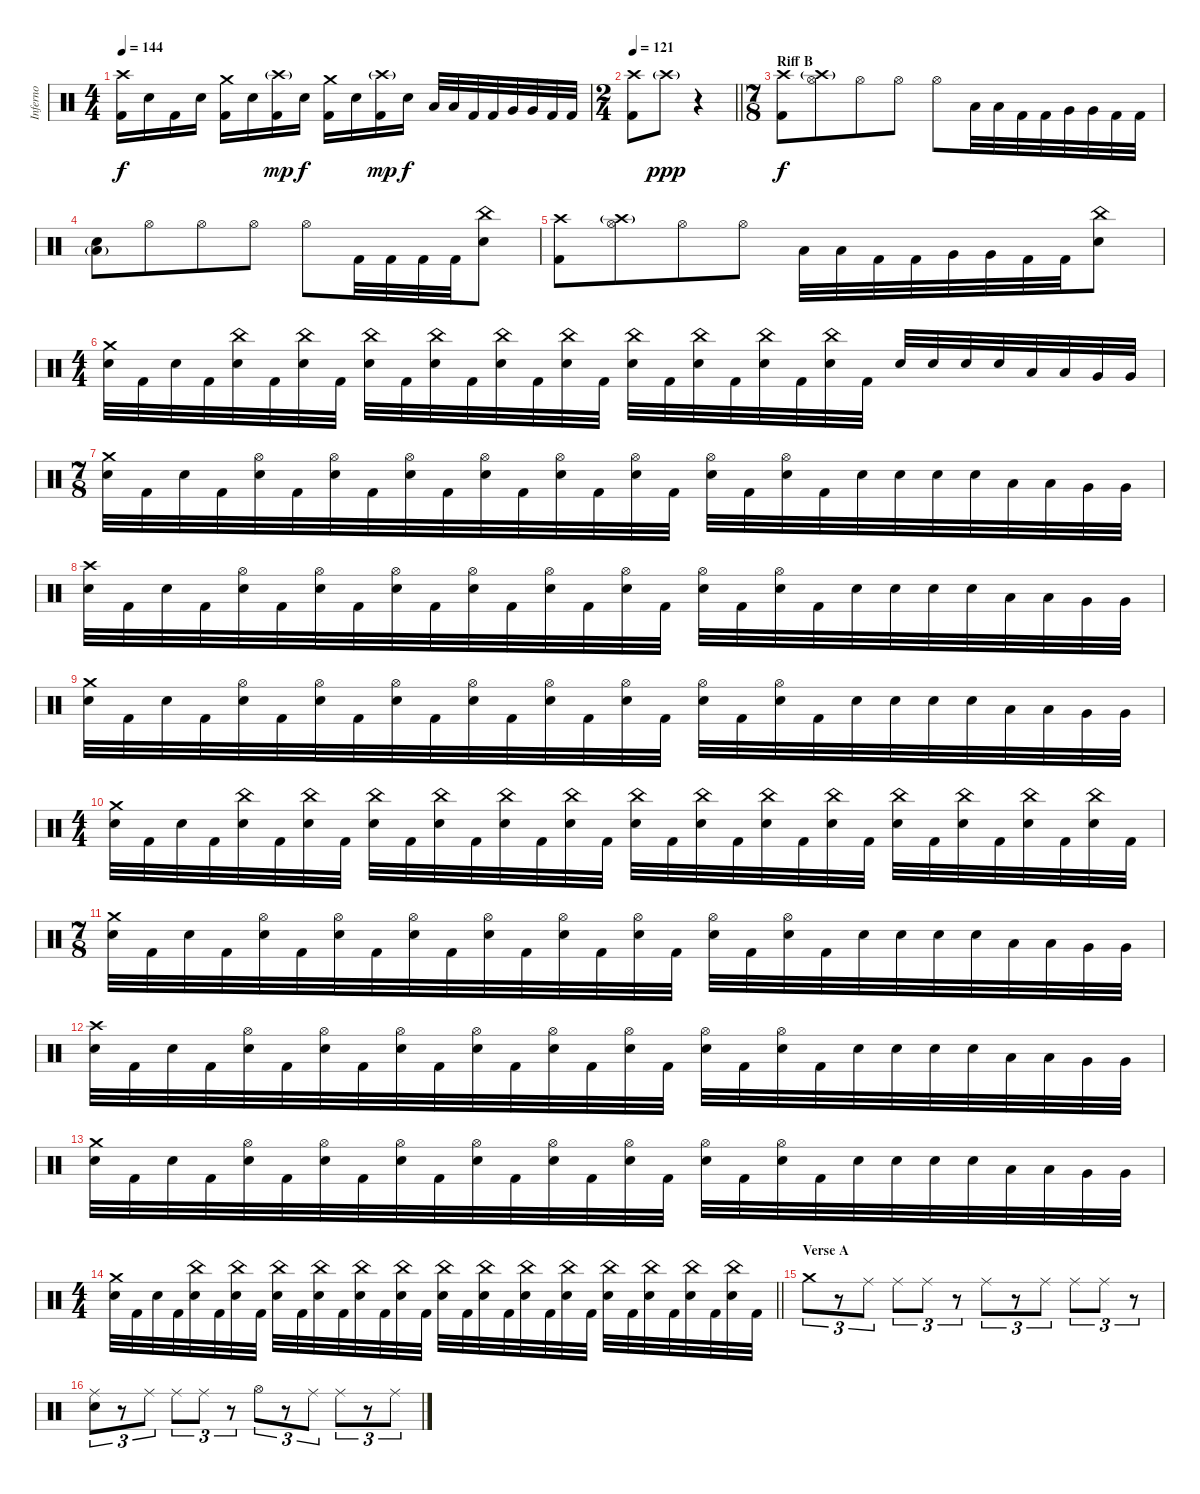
\track ("Inferno" "Inferno") {instrument percussion}
\staff {score}
\articulation defaults
\ts (4 4)
\tempo 144
\clef neutral
\ks c
("Crash high (hit)" "Kick (hit) 2").16{dy f} "Snare (hit) 2".16 "Kick (hit) 2".16 "Snare (hit) 2".16 ("Crash medium (hit)" "Kick (hit) 2").16 "Snare (hit) 2".16 ("Crash high (hit)"{g} "Kick (hit) 2").16{dy mp} "Snare (hit) 2".16{dy f} ("Crash medium (hit)" "Kick (hit) 2").16 "Snare (hit) 2".16 ("Crash high (hit)"{g} "Kick (hit) 2").16{dy mp} "Snare (hit) 2".16{dy f} "Low Tom (hit)".32 "Low Tom (hit)".32 "Kick (hit) 2".32 "Kick (hit) 2".32 "Very Low Tom (hit)".32 "Very Low Tom (hit)".32 "Kick (hit) 2".32 "Kick (hit) 2".32 |
\ts (2 4)
\tempo 121
\barLineRight lightlight
("Crash high (hit)" "Kick (hit) 2").8 "Crash high (hit)"{g}.8{dy ppp} r.4 |
\ts (7 8)
\section ("" "Riff B")
("Crash high (hit)" "Kick (hit) 2").8{dy f} ("Crash high (hit)"{g} "Hi-Hat (open)").8 "Hi-Hat (open)".8 "Hi-Hat (open)".8 "Hi-Hat (open)".8 "Low Tom (hit)".32 "Low Tom (hit)".32 "Kick (hit) 2".32 "Kick (hit) 2".32 "Very Low Tom (hit)".32 "Very Low Tom (hit)".32 "Kick (hit) 2".32 "Kick (hit) 2".32 |
("Low Floor Tom (hit)"{g} "Snare (hit) 2").8 "Hi-Hat (open)".8 "Hi-Hat (open)".8 "Hi-Hat (open)".8 "Hi-Hat (open)".8 "Kick (hit) 2".32 "Kick (hit) 2".32 "Kick (hit) 2".32 "Kick (hit) 2".32 ("China (hit)" "Snare (hit) 2").8 |
("Crash high (hit)" "Kick (hit) 2").8 ("Crash high (hit)"{g} "Hi-Hat (open)").8 "Hi-Hat (open)".8 "Hi-Hat (open)".8 "Low Tom (hit)".32 "Low Tom (hit)".32 "Kick (hit) 2".32 "Kick (hit) 2".32 "Very Low Tom (hit)".32 "Very Low Tom (hit)".32 "Kick (hit) 2".32 "Kick (hit) 2".32 ("China (hit)" "Snare (hit) 2").8 |
\ts (4 4)
("Crash medium (hit)" "Snare (hit) 2").32 "Kick (hit) 2".32 "Snare (hit) 2".32 "Kick (hit) 2".32 ("China (hit)" "Snare (hit) 2").32 "Kick (hit) 2".32 ("China (hit)" "Snare (hit) 2").32 "Kick (hit) 2".32 ("China (hit)" "Snare (hit) 2").32 "Kick (hit) 2".32 ("China (hit)" "Snare (hit) 2").32 "Kick (hit) 2".32 ("China (hit)" "Snare (hit) 2").32 "Kick (hit) 2".32 ("China (hit)" "Snare (hit) 2").32 "Kick (hit) 2".32 ("China (hit)" "Snare (hit) 2").32 "Kick (hit) 2".32 ("China (hit)" "Snare (hit) 2").32 "Kick (hit) 2".32 ("China (hit)" "Snare (hit) 2").32 "Kick (hit) 2".32 ("China (hit)" "Snare (hit) 2").32 "Kick (hit) 2".32 "Snare (hit) 2".32 "Snare (hit) 2".32 "Snare (hit) 2".32 "Snare (hit) 2".32 "Low Tom (hit)".32 "Low Tom (hit)".32 "Very Low Tom (hit)".32 "Very Low Tom (hit)".32 |
\ts (7 8)
("Crash medium (hit)" "Snare (hit) 2").32 "Kick (hit) 2".32 "Snare (hit) 2".32 "Kick (hit) 2".32 ("Hi-Hat (open)" "Snare (hit) 2").32 "Kick (hit) 2".32 ("Hi-Hat (open)" "Snare (hit) 2").32 "Kick (hit) 2".32 ("Hi-Hat (open)" "Snare (hit) 2").32 "Kick (hit) 2".32 ("Hi-Hat (open)" "Snare (hit) 2").32 "Kick (hit) 2".32 ("Hi-Hat (open)" "Snare (hit) 2").32 "Kick (hit) 2".32 ("Hi-Hat (open)" "Snare (hit) 2").32 "Kick (hit) 2".32 ("Hi-Hat (open)" "Snare (hit) 2").32 "Kick (hit) 2".32 ("Hi-Hat (open)" "Snare (hit) 2").32 "Kick (hit) 2".32 "Snare (hit) 2".32 "Snare (hit) 2".32 "Snare (hit) 2".32 "Snare (hit) 2".32 "Low Tom (hit)".32 "Low Tom (hit)".32 "Very Low Tom (hit)".32 "Very Low Tom (hit)".32 |
("Crash high (hit)" "Snare (hit) 2").32 "Kick (hit) 2".32 "Snare (hit) 2".32 "Kick (hit) 2".32 ("Hi-Hat (open)" "Snare (hit) 2").32 "Kick (hit) 2".32 ("Hi-Hat (open)" "Snare (hit) 2").32 "Kick (hit) 2".32 ("Hi-Hat (open)" "Snare (hit) 2").32 "Kick (hit) 2".32 ("Hi-Hat (open)" "Snare (hit) 2").32 "Kick (hit) 2".32 ("Hi-Hat (open)" "Snare (hit) 2").32 "Kick (hit) 2".32 ("Hi-Hat (open)" "Snare (hit) 2").32 "Kick (hit) 2".32 ("Hi-Hat (open)" "Snare (hit) 2").32 "Kick (hit) 2".32 ("Hi-Hat (open)" "Snare (hit) 2").32 "Kick (hit) 2".32 "Snare (hit) 2".32 "Snare (hit) 2".32 "Snare (hit) 2".32 "Snare (hit) 2".32 "Low Tom (hit)".32 "Low Tom (hit)".32 "Very Low Tom (hit)".32 "Very Low Tom (hit)".32 |
("Crash medium (hit)" "Snare (hit) 2").32 "Kick (hit) 2".32 "Snare (hit) 2".32 "Kick (hit) 2".32 ("Hi-Hat (open)" "Snare (hit) 2").32 "Kick (hit) 2".32 ("Hi-Hat (open)" "Snare (hit) 2").32 "Kick (hit) 2".32 ("Hi-Hat (open)" "Snare (hit) 2").32 "Kick (hit) 2".32 ("Hi-Hat (open)" "Snare (hit) 2").32 "Kick (hit) 2".32 ("Hi-Hat (open)" "Snare (hit) 2").32 "Kick (hit) 2".32 ("Hi-Hat (open)" "Snare (hit) 2").32 "Kick (hit) 2".32 ("Hi-Hat (open)" "Snare (hit) 2").32 "Kick (hit) 2".32 ("Hi-Hat (open)" "Snare (hit) 2").32 "Kick (hit) 2".32 "Snare (hit) 2".32 "Snare (hit) 2".32 "Snare (hit) 2".32 "Snare (hit) 2".32 "Low Tom (hit)".32 "Low Tom (hit)".32 "Very Low Tom (hit)".32 "Very Low Tom (hit)".32 |
\ts (4 4)
("Crash medium (hit)" "Snare (hit) 2").32 "Kick (hit) 2".32 "Snare (hit) 2".32 "Kick (hit) 2".32 ("China (hit)" "Snare (hit) 2").32 "Kick (hit) 2".32 ("China (hit)" "Snare (hit) 2").32 "Kick (hit) 2".32 ("China (hit)" "Snare (hit) 2").32 "Kick (hit) 2".32 ("China (hit)" "Snare (hit) 2").32 "Kick (hit) 2".32 ("China (hit)" "Snare (hit) 2").32 "Kick (hit) 2".32 ("China (hit)" "Snare (hit) 2").32 "Kick (hit) 2".32 ("China (hit)" "Snare (hit) 2").32 "Kick (hit) 2".32 ("China (hit)" "Snare (hit) 2").32 "Kick (hit) 2".32 ("China (hit)" "Snare (hit) 2").32 "Kick (hit) 2".32 ("China (hit)" "Snare (hit) 2").32 "Kick (hit) 2".32 ("China (hit)" "Snare (hit) 2").32 "Kick (hit) 2".32 ("China (hit)" "Snare (hit) 2").32 "Kick (hit) 2".32 ("China (hit)" "Snare (hit) 2").32 "Kick (hit) 2".32 ("China (hit)" "Snare (hit) 2").32 "Kick (hit) 2".32 |
\ts (7 8)
("Crash medium (hit)" "Snare (hit) 2").32 "Kick (hit) 2".32 "Snare (hit) 2".32 "Kick (hit) 2".32 ("Hi-Hat (open)" "Snare (hit) 2").32 "Kick (hit) 2".32 ("Hi-Hat (open)" "Snare (hit) 2").32 "Kick (hit) 2".32 ("Hi-Hat (open)" "Snare (hit) 2").32 "Kick (hit) 2".32 ("Hi-Hat (open)" "Snare (hit) 2").32 "Kick (hit) 2".32 ("Hi-Hat (open)" "Snare (hit) 2").32 "Kick (hit) 2".32 ("Hi-Hat (open)" "Snare (hit) 2").32 "Kick (hit) 2".32 ("Hi-Hat (open)" "Snare (hit) 2").32 "Kick (hit) 2".32 ("Hi-Hat (open)" "Snare (hit) 2").32 "Kick (hit) 2".32 "Snare (hit) 2".32 "Snare (hit) 2".32 "Snare (hit) 2".32 "Snare (hit) 2".32 "Low Tom (hit)".32 "Low Tom (hit)".32 "Very Low Tom (hit)".32 "Very Low Tom (hit)".32 |
("Crash high (hit)" "Snare (hit) 2").32 "Kick (hit) 2".32 "Snare (hit) 2".32 "Kick (hit) 2".32 ("Hi-Hat (open)" "Snare (hit) 2").32 "Kick (hit) 2".32 ("Hi-Hat (open)" "Snare (hit) 2").32 "Kick (hit) 2".32 ("Hi-Hat (open)" "Snare (hit) 2").32 "Kick (hit) 2".32 ("Hi-Hat (open)" "Snare (hit) 2").32 "Kick (hit) 2".32 ("Hi-Hat (open)" "Snare (hit) 2").32 "Kick (hit) 2".32 ("Hi-Hat (open)" "Snare (hit) 2").32 "Kick (hit) 2".32 ("Hi-Hat (open)" "Snare (hit) 2").32 "Kick (hit) 2".32 ("Hi-Hat (open)" "Snare (hit) 2").32 "Kick (hit) 2".32 "Snare (hit) 2".32 "Snare (hit) 2".32 "Snare (hit) 2".32 "Snare (hit) 2".32 "Low Tom (hit)".32 "Low Tom (hit)".32 "Very Low Tom (hit)".32 "Very Low Tom (hit)".32 |
("Crash medium (hit)" "Snare (hit) 2").32 "Kick (hit) 2".32 "Snare (hit) 2".32 "Kick (hit) 2".32 ("Hi-Hat (open)" "Snare (hit) 2").32 "Kick (hit) 2".32 ("Hi-Hat (open)" "Snare (hit) 2").32 "Kick (hit) 2".32 ("Hi-Hat (open)" "Snare (hit) 2").32 "Kick (hit) 2".32 ("Hi-Hat (open)" "Snare (hit) 2").32 "Kick (hit) 2".32 ("Hi-Hat (open)" "Snare (hit) 2").32 "Kick (hit) 2".32 ("Hi-Hat (open)" "Snare (hit) 2").32 "Kick (hit) 2".32 ("Hi-Hat (open)" "Snare (hit) 2").32 "Kick (hit) 2".32 ("Hi-Hat (open)" "Snare (hit) 2").32 "Kick (hit) 2".32 "Snare (hit) 2".32 "Snare (hit) 2".32 "Snare (hit) 2".32 "Snare (hit) 2".32 "Low Tom (hit)".32 "Low Tom (hit)".32 "Very Low Tom (hit)".32 "Very Low Tom (hit)".32 |
\ts (4 4)
\barLineRight lightlight
("Crash medium (hit)" "Snare (hit) 2").32 "Kick (hit) 2".32 "Snare (hit) 2".32 "Kick (hit) 2".32 ("China (hit)" "Snare (hit) 2").32 "Kick (hit) 2".32 ("China (hit)" "Snare (hit) 2").32 "Kick (hit) 2".32 ("China (hit)" "Snare (hit) 2").32 "Kick (hit) 2".32 ("China (hit)" "Snare (hit) 2").32 "Kick (hit) 2".32 ("China (hit)" "Snare (hit) 2").32 "Kick (hit) 2".32 ("China (hit)" "Snare (hit) 2").32 "Kick (hit) 2".32 ("China (hit)" "Snare (hit) 2").32 "Kick (hit) 2".32 ("China (hit)" "Snare (hit) 2").32 "Kick (hit) 2".32 ("China (hit)" "Snare (hit) 2").32 "Kick (hit) 2".32 ("China (hit)" "Snare (hit) 2").32 "Kick (hit) 2".32 ("China (hit)" "Snare (hit) 2").32 "Kick (hit) 2".32 ("China (hit)" "Snare (hit) 2").32 "Kick (hit) 2".32 ("China (hit)" "Snare (hit) 2").32 "Kick (hit) 2".32 ("China (hit)" "Snare (hit) 2").32 "Kick (hit) 2".32 |
\section ("" "Verse A")
"Crash medium (hit)".8{tu (3 2)} r.8{tu (3 2)} "Ride (middle)".8{tu (3 2)} "Ride (middle)".8{tu (3 2)} "Ride (middle)".8{tu (3 2)} r.8{tu (3 2)} "Ride (middle)".8{tu (3 2)} r.8{tu (3 2)} "Ride (middle)".8{tu (3 2)} "Ride (middle)".8{tu (3 2)} "Ride (middle)".8{tu (3 2)} r.8{tu (3 2)} |
("Ride (middle)" "Snare (hit) 2").8{tu (3 2)} r.8{tu (3 2)} "Ride (middle)".8{tu (3 2)} "Ride (middle)".8{tu (3 2)} "Ride (middle)".8{tu (3 2)} r.8{tu (3 2)} "Hi-Hat (open)".8{tu (3 2)} r.8{tu (3 2)} "Ride (middle)".8{tu (3 2)} "Ride (middle)".8{tu (3 2)} r.8{tu (3 2)} "Ride (middle)".8{tu (3 2)}
